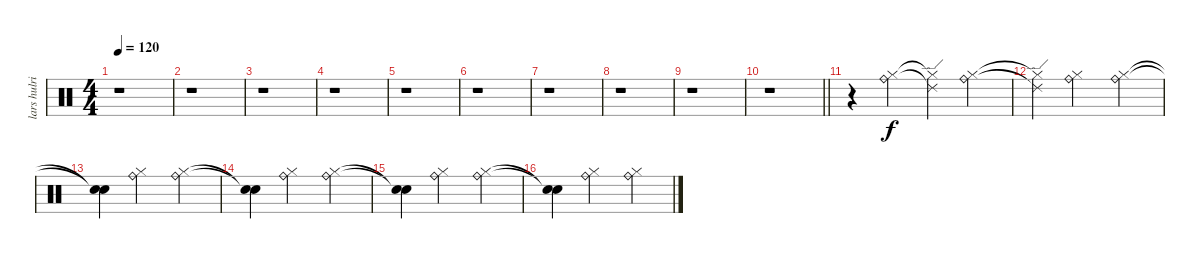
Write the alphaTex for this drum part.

\track ("lars hulrich" "lars hulri") {instrument percussion}
\staff {score}
\articulation defaults
\ts (4 4)
\tempo 120
\clef neutral
\ks c
r.1{dy f} |
r.1 |
r.1 |
r.1 |
r.1 |
r.1 |
r.1 |
r.1 |
r.1 |
\barLineRight lightlight
r.1 |
r.4 ("Ride (bell)" "Hi-Hat (closed)").4 ("Ride (edge) 2"{t} "Hi-Hat (closed)"{t}).4 ("Ride (bell)" "Hi-Hat (closed)").4 |
("Ride (edge) 2"{t} "Hi-Hat (closed)"{t}).4 ("Ride (bell)" "Hi-Hat (closed)").2 ("Ride (bell)" "Hi-Hat (closed)").4 |
("Snare (hit)"{t} "Snare (hit)"{t}).4 ("Ride (bell)" "Hi-Hat (closed)").2 ("Ride (bell)" "Hi-Hat (closed)").4 |
("Snare (hit)"{t} "Snare (hit)"{t}).4 ("Ride (bell)" "Hi-Hat (closed)").2 ("Ride (bell)" "Hi-Hat (closed)").4 |
("Snare (hit)"{t} "Snare (hit)"{t}).4 ("Ride (bell)" "Hi-Hat (closed)").2 ("Ride (bell)" "Hi-Hat (closed)").4 |
("Snare (hit)"{t} "Snare (hit)"{t}).4 ("Ride (bell)" "Hi-Hat (closed)").2 ("Ride (bell)" "Hi-Hat (closed)").4
